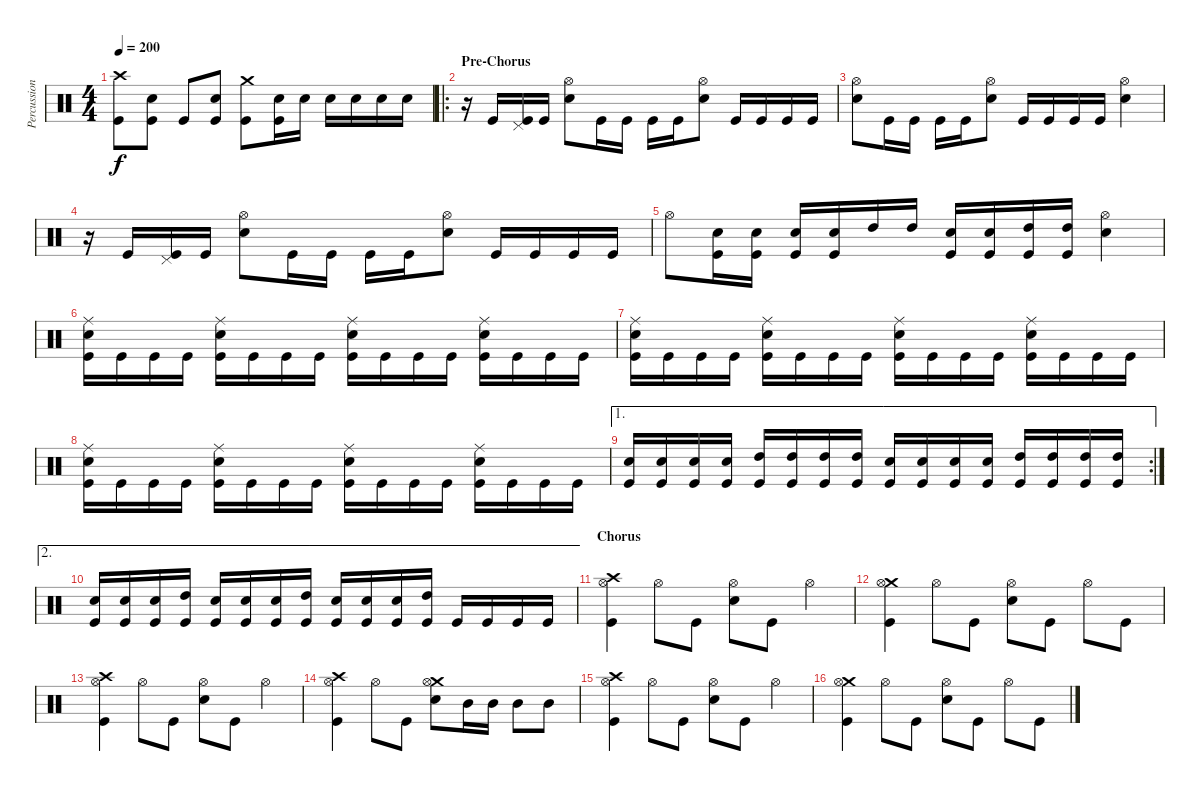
\track ("Percussion" "Percussion") {instrument percussion}
\staff {score}
\articulation defaults
\ts (4 4)
\tempo 200
\clef neutral
\ks c
("Crash high (hit)" "Kick (hit)").8{dy f} ("Snare (hit) 2" "Kick (hit)").8 "Kick (hit)".8 ("Snare (hit) 2" "Kick (hit)").8 ("Crash medium (hit)" "Kick (hit)").8 ("Snare (hit) 2" "Kick (hit)").16 "Snare (hit) 2".16 "Snare (hit) 2".16 "Snare (hit) 2".16 "Snare (hit) 2".16 "Snare (hit) 2".16 |
\ro
\section ("" "Pre-Chorus")
r.16 "Kick (hit)".16 ("Pedal Hi-Hat (hit)" "Kick (hit)").16 "Kick (hit)".16 ("Snare (hit) 2" "Hi-Hat (open)").8 "Kick (hit)".16 "Kick (hit)".16 "Kick (hit)".16 "Kick (hit)".16 ("Snare (hit) 2" "Hi-Hat (open)").8 "Kick (hit)".16 "Kick (hit)".16 "Kick (hit)".16 "Kick (hit)".16 |
("Snare (hit) 2" "Hi-Hat (open)").8 "Kick (hit)".16 "Kick (hit)".16 "Kick (hit)".16 "Kick (hit)".16 ("Snare (hit) 2" "Hi-Hat (open)").8 "Kick (hit)".16 "Kick (hit)".16 "Kick (hit)".16 "Kick (hit)".16 ("Snare (hit) 2" "Hi-Hat (open)").4 |
r.16 "Kick (hit)".16 ("Pedal Hi-Hat (hit)" "Kick (hit)").16 "Kick (hit)".16 ("Snare (hit) 2" "Hi-Hat (open)").8 "Kick (hit)".16 "Kick (hit)".16 "Kick (hit)".16 "Kick (hit)".16 ("Snare (hit) 2" "Hi-Hat (open)").8 "Kick (hit)".16 "Kick (hit)".16 "Kick (hit)".16 "Kick (hit)".16 |
"Hi-Hat (open)".8 ("Snare (hit) 2" "Kick (hit)").16 ("Snare (hit) 2" "Kick (hit)").16 ("Snare (hit) 2" "Kick (hit)").16 ("Snare (hit) 2" "Kick (hit)").16 "High Tom (hit)".16 "High Tom (hit)".16 ("Snare (hit) 2" "Kick (hit)").16 ("Snare (hit) 2" "Kick (hit)").16 ("High Tom (hit)" "Kick (hit)").16 ("High Tom (hit)" "Kick (hit)").16 ("Snare (hit) 2" "Hi-Hat (open)").4 |
("Snare (hit) 2" "Ride (middle)" "Kick (hit)").16 "Kick (hit)".16 "Kick (hit)".16 "Kick (hit)".16 ("Snare (hit) 2" "Ride (middle)" "Kick (hit)").16 "Kick (hit)".16 "Kick (hit)".16 "Kick (hit)".16 ("Snare (hit) 2" "Ride (middle)" "Kick (hit)").16 "Kick (hit)".16 "Kick (hit)".16 "Kick (hit)".16 ("Snare (hit) 2" "Ride (middle)" "Kick (hit)").16 "Kick (hit)".16 "Kick (hit)".16 "Kick (hit)".16 |
("Snare (hit) 2" "Ride (middle)" "Kick (hit)").16 "Kick (hit)".16 "Kick (hit)".16 "Kick (hit)".16 ("Snare (hit) 2" "Ride (middle)" "Kick (hit)").16 "Kick (hit)".16 "Kick (hit)".16 "Kick (hit)".16 ("Snare (hit) 2" "Ride (middle)" "Kick (hit)").16 "Kick (hit)".16 "Kick (hit)".16 "Kick (hit)".16 ("Snare (hit) 2" "Ride (middle)" "Kick (hit)").16 "Kick (hit)".16 "Kick (hit)".16 "Kick (hit)".16 |
("Snare (hit) 2" "Ride (middle)" "Kick (hit)").16 "Kick (hit)".16 "Kick (hit)".16 "Kick (hit)".16 ("Snare (hit) 2" "Ride (middle)" "Kick (hit)").16 "Kick (hit)".16 "Kick (hit)".16 "Kick (hit)".16 ("Snare (hit) 2" "Ride (middle)" "Kick (hit)").16 "Kick (hit)".16 "Kick (hit)".16 "Kick (hit)".16 ("Snare (hit) 2" "Ride (middle)" "Kick (hit)").16 "Kick (hit)".16 "Kick (hit)".16 "Kick (hit)".16 |
\ae 1
\rc 2
("Snare (hit) 2" "Kick (hit)").16 ("Snare (hit) 2" "Kick (hit)").16 ("Snare (hit) 2" "Kick (hit)").16 ("Snare (hit) 2" "Kick (hit)").16 ("High Tom (hit)" "Kick (hit)").16 ("High Tom (hit)" "Kick (hit)").16 ("High Tom (hit)" "Kick (hit)").16 ("High Tom (hit)" "Kick (hit)").16 ("Snare (hit) 2" "Kick (hit)").16 ("Snare (hit) 2" "Kick (hit)").16 ("Snare (hit) 2" "Kick (hit)").16 ("Snare (hit) 2" "Kick (hit)").16 ("High Tom (hit)" "Kick (hit)").16 ("High Tom (hit)" "Kick (hit)").16 ("High Tom (hit)" "Kick (hit)").16 ("High Tom (hit)" "Kick (hit)").16 |
\ae 2
("Snare (hit) 2" "Kick (hit)").16 ("Snare (hit) 2" "Kick (hit)").16 ("Snare (hit) 2" "Kick (hit)").16 ("High Tom (hit)" "Kick (hit)").16 ("Snare (hit) 2" "Kick (hit)").16 ("Snare (hit) 2" "Kick (hit)").16 ("Snare (hit) 2" "Kick (hit)").16 ("High Tom (hit)" "Kick (hit)").16 ("Snare (hit) 2" "Kick (hit)").16 ("Snare (hit) 2" "Kick (hit)").16 ("Snare (hit) 2" "Kick (hit)").16 ("High Tom (hit)" "Kick (hit)").16 "Kick (hit)".16 "Kick (hit)".16 "Kick (hit)".16 "Kick (hit)".16 |
\section ("" "Chorus")
("Crash high (hit)" "Hi-Hat (open)" "Kick (hit)").4 "Hi-Hat (open)".8 "Kick (hit)".8 ("Snare (hit) 2" "Hi-Hat (open)").8 "Kick (hit)".8 "Hi-Hat (open)".4 |
("Crash medium (hit)" "Hi-Hat (open)" "Kick (hit)").4 "Hi-Hat (open)".8 "Kick (hit)".8 ("Snare (hit) 2" "Hi-Hat (open)").8 "Kick (hit)".8 "Hi-Hat (open)".8 "Kick (hit)".8 |
("Crash high (hit)" "Hi-Hat (open)" "Kick (hit)").4 "Hi-Hat (open)".8 "Kick (hit)".8 ("Snare (hit) 2" "Hi-Hat (open)").8 "Kick (hit)".8 "Hi-Hat (open)".4 |
("Crash high (hit)" "Hi-Hat (open)" "Kick (hit)").4 "Hi-Hat (open)".8 "Kick (hit)".8 ("Crash medium (hit)" "Snare (hit) 2" "Hi-Hat (open)").8 "Mid Tom (hit)".16 "Mid Tom (hit)".16 "Mid Tom (hit)".8 "Mid Tom (hit)".8 |
("Crash high (hit)" "Hi-Hat (open)" "Kick (hit)").4 "Hi-Hat (open)".8 "Kick (hit)".8 ("Snare (hit) 2" "Hi-Hat (open)").8 "Kick (hit)".8 "Hi-Hat (open)".4 |
("Crash medium (hit)" "Hi-Hat (open)" "Kick (hit)").4 "Hi-Hat (open)".8 "Kick (hit)".8 ("Snare (hit) 2" "Hi-Hat (open)").8 "Kick (hit)".8 "Hi-Hat (open)".8 "Kick (hit)".8
